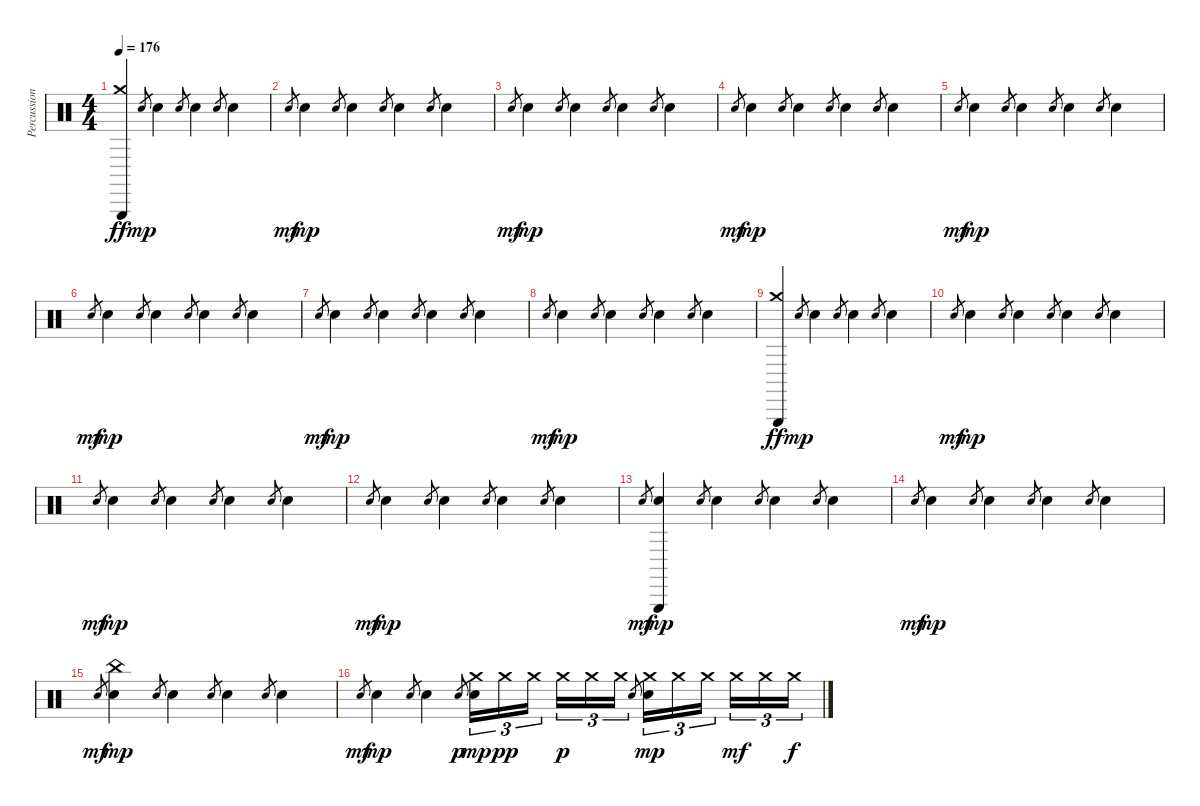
\track ("Percussion" "Percussion") {instrument percussion}
\staff {score}
\articulation defaults
\ts (4 4)
\tempo 176
\clef neutral
\ks c
("Crash medium (hit)" "Triangle (hit)").4{dy ff} "Snare (hit)".8{gr dy mp} "Hand Clap (hit)".4 "Snare (hit)".8{gr} "Hand Clap (hit)".4 "Snare (hit)".8{gr} "Hand Clap (hit)".4 |
"Snare (hit)".8{gr dy mf} "Hand Clap (hit)".4{dy mp} "Snare (hit)".8{gr} "Hand Clap (hit)".4 "Snare (hit)".8{gr} "Hand Clap (hit)".4 "Snare (hit)".8{gr} "Hand Clap (hit)".4 |
"Snare (hit)".8{gr dy mf} "Hand Clap (hit)".4{dy mp} "Snare (hit)".8{gr} "Hand Clap (hit)".4 "Snare (hit)".8{gr} "Hand Clap (hit)".4 "Snare (hit)".8{gr} "Hand Clap (hit)".4 |
"Snare (hit)".8{gr dy mf} "Hand Clap (hit)".4{dy mp} "Snare (hit)".8{gr} "Hand Clap (hit)".4 "Snare (hit)".8{gr} "Hand Clap (hit)".4 "Snare (hit)".8{gr} "Hand Clap (hit)".4 |
"Snare (hit)".8{gr dy mf} "Hand Clap (hit)".4{dy mp} "Snare (hit)".8{gr} "Hand Clap (hit)".4 "Snare (hit)".8{gr} "Hand Clap (hit)".4 "Snare (hit)".8{gr} "Hand Clap (hit)".4 |
"Snare (hit)".8{gr dy mf} "Hand Clap (hit)".4{dy mp} "Snare (hit)".8{gr} "Hand Clap (hit)".4 "Snare (hit)".8{gr} "Hand Clap (hit)".4 "Snare (hit)".8{gr} "Hand Clap (hit)".4 |
"Snare (hit)".8{gr dy mf} "Hand Clap (hit)".4{dy mp} "Snare (hit)".8{gr} "Hand Clap (hit)".4 "Snare (hit)".8{gr} "Hand Clap (hit)".4 "Snare (hit)".8{gr} "Hand Clap (hit)".4 |
"Snare (hit)".8{gr dy mf} "Hand Clap (hit)".4{dy mp} "Snare (hit)".8{gr} "Hand Clap (hit)".4 "Snare (hit)".8{gr} "Hand Clap (hit)".4 "Snare (hit)".8{gr} "Hand Clap (hit)".4 |
("Crash medium (hit)" "Triangle (hit)").4{dy ff} "Snare (hit)".8{gr dy mp} "Hand Clap (hit)".4 "Snare (hit)".8{gr} "Hand Clap (hit)".4 "Snare (hit)".8{gr} "Hand Clap (hit)".4 |
"Snare (hit)".8{gr dy mf} "Hand Clap (hit)".4{dy mp} "Snare (hit)".8{gr} "Hand Clap (hit)".4 "Snare (hit)".8{gr} "Hand Clap (hit)".4 "Snare (hit)".8{gr} "Hand Clap (hit)".4 |
"Snare (hit)".8{gr dy mf} "Hand Clap (hit)".4{dy mp} "Snare (hit)".8{gr} "Hand Clap (hit)".4 "Snare (hit)".8{gr} "Hand Clap (hit)".4 "Snare (hit)".8{gr} "Hand Clap (hit)".4 |
"Snare (hit)".8{gr dy mf} "Hand Clap (hit)".4{dy mp} "Snare (hit)".8{gr} "Hand Clap (hit)".4 "Snare (hit)".8{gr} "Hand Clap (hit)".4 "Snare (hit)".8{gr} "Hand Clap (hit)".4 |
"Snare (hit)".8{gr dy mf} ("Hand Clap (hit)" "Triangle (hit)").4{dy mp} "Snare (hit)".8{gr} "Hand Clap (hit)".4 "Snare (hit)".8{gr} "Hand Clap (hit)".4 "Snare (hit)".8{gr} "Hand Clap (hit)".4 |
"Snare (hit)".8{gr dy mf} "Hand Clap (hit)".4{dy mp} "Snare (hit)".8{gr} "Hand Clap (hit)".4 "Snare (hit)".8{gr} "Hand Clap (hit)".4 "Snare (hit)".8{gr} "Hand Clap (hit)".4 |
"Snare (hit)".8{gr dy mf} ("Hand Clap (hit)" "China (hit)").4{dy mp} "Snare (hit)".8{gr} "Hand Clap (hit)".4 "Snare (hit)".8{gr} "Hand Clap (hit)".4 "Snare (hit)".8{gr} "Hand Clap (hit)".4 |
"Snare (hit)".8{gr dy mf} "Hand Clap (hit)".4{dy mp} "Snare (hit)".8{gr} "Hand Clap (hit)".4 "Snare (hit)".8{gr dy p} ("Hand Clap (hit)" "Crash medium (hit)").16{tu (3 2) dy mp} "Crash medium (hit)".16{tu (3 2) dy pp} "Crash medium (hit)".16{tu (3 2)} "Crash medium (hit)".16{tu (3 2) dy p} "Crash medium (hit)".16{tu (3 2)} "Crash medium (hit)".16{tu (3 2)} "Snare (hit)".8{gr} ("Hand Clap (hit)" "Crash medium (hit)").16{tu (3 2) dy mp} "Crash medium (hit)".16{tu (3 2)} "Crash medium (hit)".16{tu (3 2)} "Crash medium (hit)".16{tu (3 2) dy mf} "Crash medium (hit)".16{tu (3 2)} "Crash medium (hit)".16{tu (3 2) dy f}
